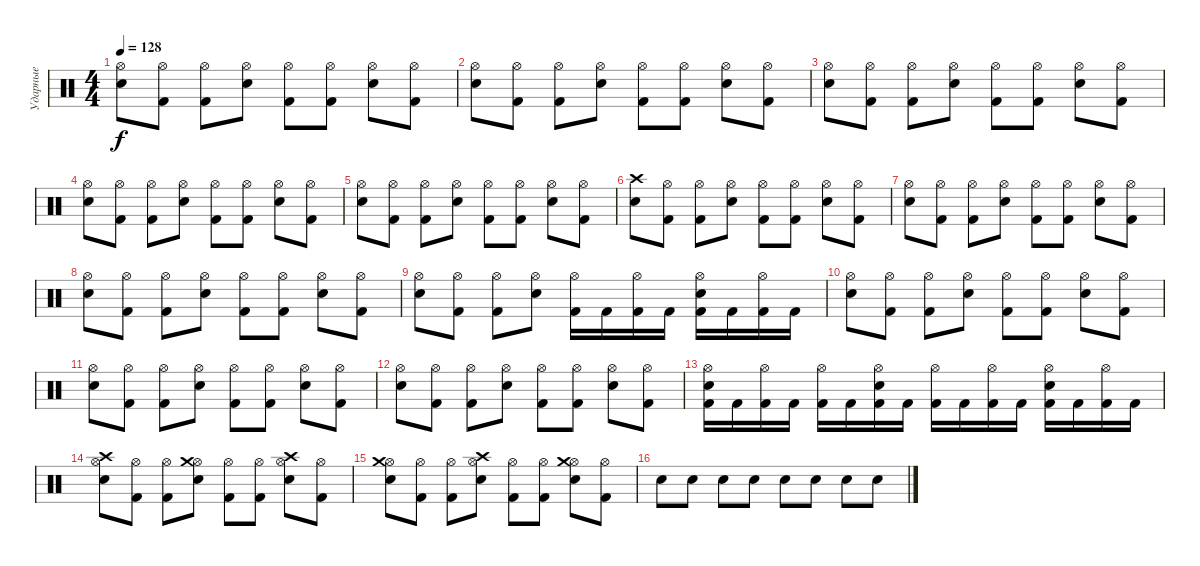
\track ("Ударные" "Ударные") {instrument percussion}
\staff {score}
\articulation defaults
\ts (4 4)
\tempo 128
\clef neutral
\ks c
("Snare (hit) 2" "Hi-Hat (open)").8{dy f} ("Kick (hit) 2" "Hi-Hat (open)").8 ("Kick (hit) 2" "Hi-Hat (open)").8 ("Snare (hit) 2" "Hi-Hat (open)").8 ("Kick (hit) 2" "Hi-Hat (open)").8 ("Kick (hit) 2" "Hi-Hat (open)").8 ("Snare (hit) 2" "Hi-Hat (open)").8 ("Kick (hit) 2" "Hi-Hat (open)").8 |
("Snare (hit) 2" "Hi-Hat (open)").8 ("Kick (hit) 2" "Hi-Hat (open)").8 ("Kick (hit) 2" "Hi-Hat (open)").8 ("Snare (hit) 2" "Hi-Hat (open)").8 ("Kick (hit) 2" "Hi-Hat (open)").8 ("Kick (hit) 2" "Hi-Hat (open)").8 ("Snare (hit) 2" "Hi-Hat (open)").8 ("Kick (hit) 2" "Hi-Hat (open)").8 |
("Snare (hit) 2" "Hi-Hat (open)").8 ("Kick (hit) 2" "Hi-Hat (open)").8 ("Kick (hit) 2" "Hi-Hat (open)").8 ("Snare (hit) 2" "Hi-Hat (open)").8 ("Kick (hit) 2" "Hi-Hat (open)").8 ("Kick (hit) 2" "Hi-Hat (open)").8 ("Snare (hit) 2" "Hi-Hat (open)").8 ("Kick (hit) 2" "Hi-Hat (open)").8 |
("Snare (hit) 2" "Hi-Hat (open)").8 ("Kick (hit) 2" "Hi-Hat (open)").8 ("Kick (hit) 2" "Hi-Hat (open)").8 ("Snare (hit) 2" "Hi-Hat (open)").8 ("Kick (hit) 2" "Hi-Hat (open)").8 ("Kick (hit) 2" "Hi-Hat (open)").8 ("Snare (hit) 2" "Hi-Hat (open)").8 ("Kick (hit) 2" "Hi-Hat (open)").8 |
("Snare (hit) 2" "Hi-Hat (open)").8 ("Kick (hit) 2" "Hi-Hat (open)").8 ("Kick (hit) 2" "Hi-Hat (open)").8 ("Snare (hit) 2" "Hi-Hat (open)").8 ("Kick (hit) 2" "Hi-Hat (open)").8 ("Kick (hit) 2" "Hi-Hat (open)").8 ("Snare (hit) 2" "Hi-Hat (open)").8 ("Kick (hit) 2" "Hi-Hat (open)").8 |
("Crash high (hit)" "Snare (hit) 2").8 ("Kick (hit) 2" "Hi-Hat (open)").8 ("Kick (hit) 2" "Hi-Hat (open)").8 ("Snare (hit) 2" "Hi-Hat (open)").8 ("Kick (hit) 2" "Hi-Hat (open)").8 ("Kick (hit) 2" "Hi-Hat (open)").8 ("Snare (hit) 2" "Hi-Hat (open)").8 ("Kick (hit) 2" "Hi-Hat (open)").8 |
("Snare (hit) 2" "Hi-Hat (open)").8 ("Kick (hit) 2" "Hi-Hat (open)").8 ("Kick (hit) 2" "Hi-Hat (open)").8 ("Snare (hit) 2" "Hi-Hat (open)").8 ("Kick (hit) 2" "Hi-Hat (open)").8 ("Kick (hit) 2" "Hi-Hat (open)").8 ("Snare (hit) 2" "Hi-Hat (open)").8 ("Kick (hit) 2" "Hi-Hat (open)").8 |
("Snare (hit) 2" "Hi-Hat (open)").8 ("Kick (hit) 2" "Hi-Hat (open)").8 ("Kick (hit) 2" "Hi-Hat (open)").8 ("Snare (hit) 2" "Hi-Hat (open)").8 ("Kick (hit) 2" "Hi-Hat (open)").8 ("Kick (hit) 2" "Hi-Hat (open)").8 ("Snare (hit) 2" "Hi-Hat (open)").8 ("Kick (hit) 2" "Hi-Hat (open)").8 |
("Snare (hit) 2" "Hi-Hat (open)").8 ("Kick (hit) 2" "Hi-Hat (open)").8 ("Kick (hit) 2" "Hi-Hat (open)").8 ("Snare (hit) 2" "Hi-Hat (open)").8 ("Kick (hit) 2" "Hi-Hat (open)").16 "Kick (hit) 2".16 ("Kick (hit) 2" "Hi-Hat (open)").16 "Kick (hit) 2".16 ("Kick (hit) 2" "Snare (hit) 2" "Hi-Hat (open)").16 "Kick (hit) 2".16 ("Kick (hit) 2" "Hi-Hat (open)").16 "Kick (hit) 2".16 |
("Snare (hit) 2" "Hi-Hat (open)").8 ("Kick (hit) 2" "Hi-Hat (open)").8 ("Kick (hit) 2" "Hi-Hat (open)").8 ("Snare (hit) 2" "Hi-Hat (open)").8 ("Kick (hit) 2" "Hi-Hat (open)").8 ("Kick (hit) 2" "Hi-Hat (open)").8 ("Snare (hit) 2" "Hi-Hat (open)").8 ("Kick (hit) 2" "Hi-Hat (open)").8 |
("Snare (hit) 2" "Hi-Hat (open)").8 ("Kick (hit) 2" "Hi-Hat (open)").8 ("Kick (hit) 2" "Hi-Hat (open)").8 ("Snare (hit) 2" "Hi-Hat (open)").8 ("Kick (hit) 2" "Hi-Hat (open)").8 ("Kick (hit) 2" "Hi-Hat (open)").8 ("Snare (hit) 2" "Hi-Hat (open)").8 ("Kick (hit) 2" "Hi-Hat (open)").8 |
("Snare (hit) 2" "Hi-Hat (open)").8 ("Kick (hit) 2" "Hi-Hat (open)").8 ("Kick (hit) 2" "Hi-Hat (open)").8 ("Snare (hit) 2" "Hi-Hat (open)").8 ("Kick (hit) 2" "Hi-Hat (open)").8 ("Kick (hit) 2" "Hi-Hat (open)").8 ("Snare (hit) 2" "Hi-Hat (open)").8 ("Kick (hit) 2" "Hi-Hat (open)").8 |
("Snare (hit) 2" "Hi-Hat (open)" "Kick (hit) 2").16 "Kick (hit) 2".16 ("Kick (hit) 2" "Hi-Hat (open)").16 "Kick (hit) 2".16 ("Kick (hit) 2" "Hi-Hat (open)").16 "Kick (hit) 2".16 ("Snare (hit) 2" "Hi-Hat (open)" "Kick (hit) 2").16 "Kick (hit) 2".16 ("Kick (hit) 2" "Hi-Hat (open)").16 "Kick (hit) 2".16 ("Kick (hit) 2" "Hi-Hat (open)").16 "Kick (hit) 2".16 ("Snare (hit) 2" "Hi-Hat (open)" "Kick (hit) 2").16 "Kick (hit) 2".16 ("Kick (hit) 2" "Hi-Hat (open)").16 "Kick (hit) 2".16 |
("Snare (hit) 2" "Hi-Hat (open)" "Crash high (hit)").8 ("Kick (hit) 2" "Hi-Hat (open)").8 ("Kick (hit) 2" "Hi-Hat (open)").8 ("Snare (hit) 2" "Hi-Hat (open)" "Crash medium (hit)").8 ("Kick (hit) 2" "Hi-Hat (open)").8 ("Kick (hit) 2" "Hi-Hat (open)").8 ("Snare (hit) 2" "Hi-Hat (open)" "Crash high (hit)").8 ("Kick (hit) 2" "Hi-Hat (open)").8 |
("Snare (hit) 2" "Hi-Hat (open)" "Crash medium (hit)").8 ("Kick (hit) 2" "Hi-Hat (open)").8 ("Kick (hit) 2" "Hi-Hat (open)").8 ("Snare (hit) 2" "Hi-Hat (open)" "Crash high (hit)").8 ("Kick (hit) 2" "Hi-Hat (open)").8 ("Kick (hit) 2" "Hi-Hat (open)").8 ("Snare (hit) 2" "Hi-Hat (open)" "Crash medium (hit)").8 ("Kick (hit) 2" "Hi-Hat (open)").8 |
"Snare (hit) 2".8 "Snare (hit) 2".8 "Snare (hit) 2".8 "Snare (hit) 2".8 "Snare (hit) 2".8 "Snare (hit) 2".8 "Snare (hit) 2".8 "Snare (hit) 2".8
